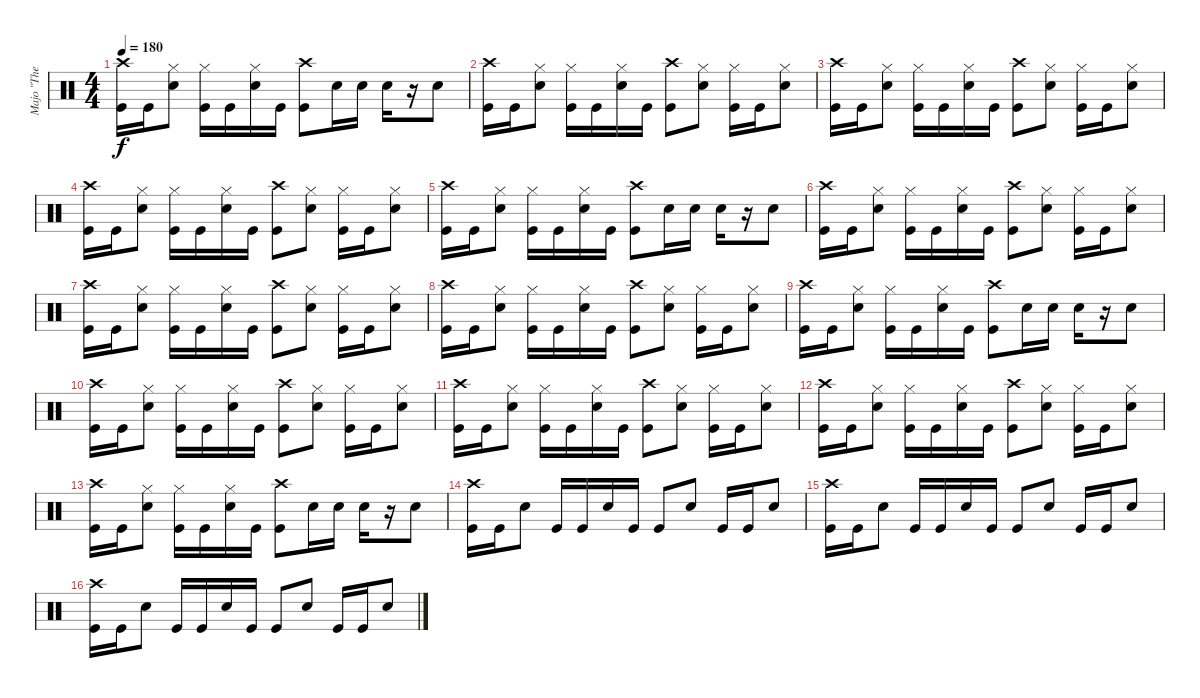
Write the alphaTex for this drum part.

\track ("Majo \"The Dremmel\" Hirt" "Majo \"The ") {instrument percussion}
\staff {score}
\articulation defaults
\ts (4 4)
\tempo 180
\clef neutral
\ks c
("Crash high (hit)" "Kick (hit)").16{dy f} "Kick (hit)".16 ("Hi-Hat (closed)" "Electric Snare (hit)").8 ("Hi-Hat (closed)" "Kick (hit)").16 "Kick (hit)".16 ("Hi-Hat (closed)" "Electric Snare (hit)").16 "Kick (hit)".16 ("Crash high (hit)" "Kick (hit)").8 "Snare (hit) 2".16 "Snare (hit) 2".16 "Snare (hit) 2".16 r.16 "Snare (hit) 2".8 |
("Crash high (hit)" "Kick (hit)").16 "Kick (hit)".16 ("Hi-Hat (closed)" "Electric Snare (hit)").8 ("Hi-Hat (closed)" "Kick (hit)").16 "Kick (hit)".16 ("Hi-Hat (closed)" "Electric Snare (hit)").16 "Kick (hit)".16 ("Crash high (hit)" "Kick (hit)").8 ("Hi-Hat (closed)" "Electric Snare (hit)").8 ("Hi-Hat (closed)" "Kick (hit)").16 "Kick (hit)".16 ("Hi-Hat (closed)" "Electric Snare (hit)").8 |
("Crash high (hit)" "Kick (hit)").16 "Kick (hit)".16 ("Hi-Hat (closed)" "Electric Snare (hit)").8 ("Hi-Hat (closed)" "Kick (hit)").16 "Kick (hit)".16 ("Hi-Hat (closed)" "Electric Snare (hit)").16 "Kick (hit)".16 ("Crash high (hit)" "Kick (hit)").8 ("Hi-Hat (closed)" "Electric Snare (hit)").8 ("Hi-Hat (closed)" "Kick (hit)").16 "Kick (hit)".16 ("Hi-Hat (closed)" "Electric Snare (hit)").8 |
("Crash high (hit)" "Kick (hit)").16 "Kick (hit)".16 ("Hi-Hat (closed)" "Electric Snare (hit)").8 ("Hi-Hat (closed)" "Kick (hit)").16 "Kick (hit)".16 ("Hi-Hat (closed)" "Electric Snare (hit)").16 "Kick (hit)".16 ("Crash high (hit)" "Kick (hit)").8 ("Hi-Hat (closed)" "Electric Snare (hit)").8 ("Hi-Hat (closed)" "Kick (hit)").16 "Kick (hit)".16 ("Hi-Hat (closed)" "Electric Snare (hit)").8 |
("Crash high (hit)" "Kick (hit)").16 "Kick (hit)".16 ("Hi-Hat (closed)" "Electric Snare (hit)").8 ("Hi-Hat (closed)" "Kick (hit)").16 "Kick (hit)".16 ("Hi-Hat (closed)" "Electric Snare (hit)").16 "Kick (hit)".16 ("Crash high (hit)" "Kick (hit)").8 "Snare (hit) 2".16 "Snare (hit) 2".16 "Snare (hit) 2".16 r.16 "Snare (hit) 2".8 |
("Crash high (hit)" "Kick (hit)").16 "Kick (hit)".16 ("Hi-Hat (closed)" "Electric Snare (hit)").8 ("Hi-Hat (closed)" "Kick (hit)").16 "Kick (hit)".16 ("Hi-Hat (closed)" "Electric Snare (hit)").16 "Kick (hit)".16 ("Crash high (hit)" "Kick (hit)").8 ("Hi-Hat (closed)" "Electric Snare (hit)").8 ("Hi-Hat (closed)" "Kick (hit)").16 "Kick (hit)".16 ("Hi-Hat (closed)" "Electric Snare (hit)").8 |
("Crash high (hit)" "Kick (hit)").16 "Kick (hit)".16 ("Hi-Hat (closed)" "Electric Snare (hit)").8 ("Hi-Hat (closed)" "Kick (hit)").16 "Kick (hit)".16 ("Hi-Hat (closed)" "Electric Snare (hit)").16 "Kick (hit)".16 ("Crash high (hit)" "Kick (hit)").8 ("Hi-Hat (closed)" "Electric Snare (hit)").8 ("Hi-Hat (closed)" "Kick (hit)").16 "Kick (hit)".16 ("Hi-Hat (closed)" "Electric Snare (hit)").8 |
("Crash high (hit)" "Kick (hit)").16 "Kick (hit)".16 ("Hi-Hat (closed)" "Electric Snare (hit)").8 ("Hi-Hat (closed)" "Kick (hit)").16 "Kick (hit)".16 ("Hi-Hat (closed)" "Electric Snare (hit)").16 "Kick (hit)".16 ("Crash high (hit)" "Kick (hit)").8 ("Hi-Hat (closed)" "Electric Snare (hit)").8 ("Hi-Hat (closed)" "Kick (hit)").16 "Kick (hit)".16 ("Hi-Hat (closed)" "Electric Snare (hit)").8 |
("Crash high (hit)" "Kick (hit)").16 "Kick (hit)".16 ("Hi-Hat (closed)" "Electric Snare (hit)").8 ("Hi-Hat (closed)" "Kick (hit)").16 "Kick (hit)".16 ("Hi-Hat (closed)" "Electric Snare (hit)").16 "Kick (hit)".16 ("Crash high (hit)" "Kick (hit)").8 "Snare (hit) 2".16 "Snare (hit) 2".16 "Snare (hit) 2".16 r.16 "Snare (hit) 2".8 |
("Crash high (hit)" "Kick (hit)").16 "Kick (hit)".16 ("Hi-Hat (closed)" "Electric Snare (hit)").8 ("Hi-Hat (closed)" "Kick (hit)").16 "Kick (hit)".16 ("Hi-Hat (closed)" "Electric Snare (hit)").16 "Kick (hit)".16 ("Crash high (hit)" "Kick (hit)").8 ("Hi-Hat (closed)" "Electric Snare (hit)").8 ("Hi-Hat (closed)" "Kick (hit)").16 "Kick (hit)".16 ("Hi-Hat (closed)" "Electric Snare (hit)").8 |
("Crash high (hit)" "Kick (hit)").16 "Kick (hit)".16 ("Hi-Hat (closed)" "Electric Snare (hit)").8 ("Hi-Hat (closed)" "Kick (hit)").16 "Kick (hit)".16 ("Hi-Hat (closed)" "Electric Snare (hit)").16 "Kick (hit)".16 ("Crash high (hit)" "Kick (hit)").8 ("Hi-Hat (closed)" "Electric Snare (hit)").8 ("Hi-Hat (closed)" "Kick (hit)").16 "Kick (hit)".16 ("Hi-Hat (closed)" "Electric Snare (hit)").8 |
("Crash high (hit)" "Kick (hit)").16 "Kick (hit)".16 ("Hi-Hat (closed)" "Electric Snare (hit)").8 ("Hi-Hat (closed)" "Kick (hit)").16 "Kick (hit)".16 ("Hi-Hat (closed)" "Electric Snare (hit)").16 "Kick (hit)".16 ("Crash high (hit)" "Kick (hit)").8 ("Hi-Hat (closed)" "Electric Snare (hit)").8 ("Hi-Hat (closed)" "Kick (hit)").16 "Kick (hit)".16 ("Hi-Hat (closed)" "Electric Snare (hit)").8 |
("Crash high (hit)" "Kick (hit)").16 "Kick (hit)".16 ("Hi-Hat (closed)" "Electric Snare (hit)").8 ("Hi-Hat (closed)" "Kick (hit)").16 "Kick (hit)".16 ("Hi-Hat (closed)" "Electric Snare (hit)").16 "Kick (hit)".16 ("Crash high (hit)" "Kick (hit)").8 "Snare (hit) 2".16 "Snare (hit) 2".16 "Snare (hit) 2".16 r.16 "Snare (hit) 2".8 |
("Crash high (hit)" "Kick (hit)").16 "Kick (hit)".16 "Electric Snare (hit)".8 "Kick (hit)".16 "Kick (hit)".16 "Electric Snare (hit)".16 "Kick (hit)".16 "Kick (hit)".8 "Electric Snare (hit)".8 "Kick (hit)".16 "Kick (hit)".16 "Electric Snare (hit)".8 |
("Crash high (hit)" "Kick (hit)").16 "Kick (hit)".16 "Electric Snare (hit)".8 "Kick (hit)".16 "Kick (hit)".16 "Electric Snare (hit)".16 "Kick (hit)".16 "Kick (hit)".8 "Electric Snare (hit)".8 "Kick (hit)".16 "Kick (hit)".16 "Electric Snare (hit)".8 |
("Crash high (hit)" "Kick (hit)").16 "Kick (hit)".16 "Electric Snare (hit)".8 "Kick (hit)".16 "Kick (hit)".16 "Electric Snare (hit)".16 "Kick (hit)".16 "Kick (hit)".8 "Electric Snare (hit)".8 "Kick (hit)".16 "Kick (hit)".16 "Electric Snare (hit)".8
